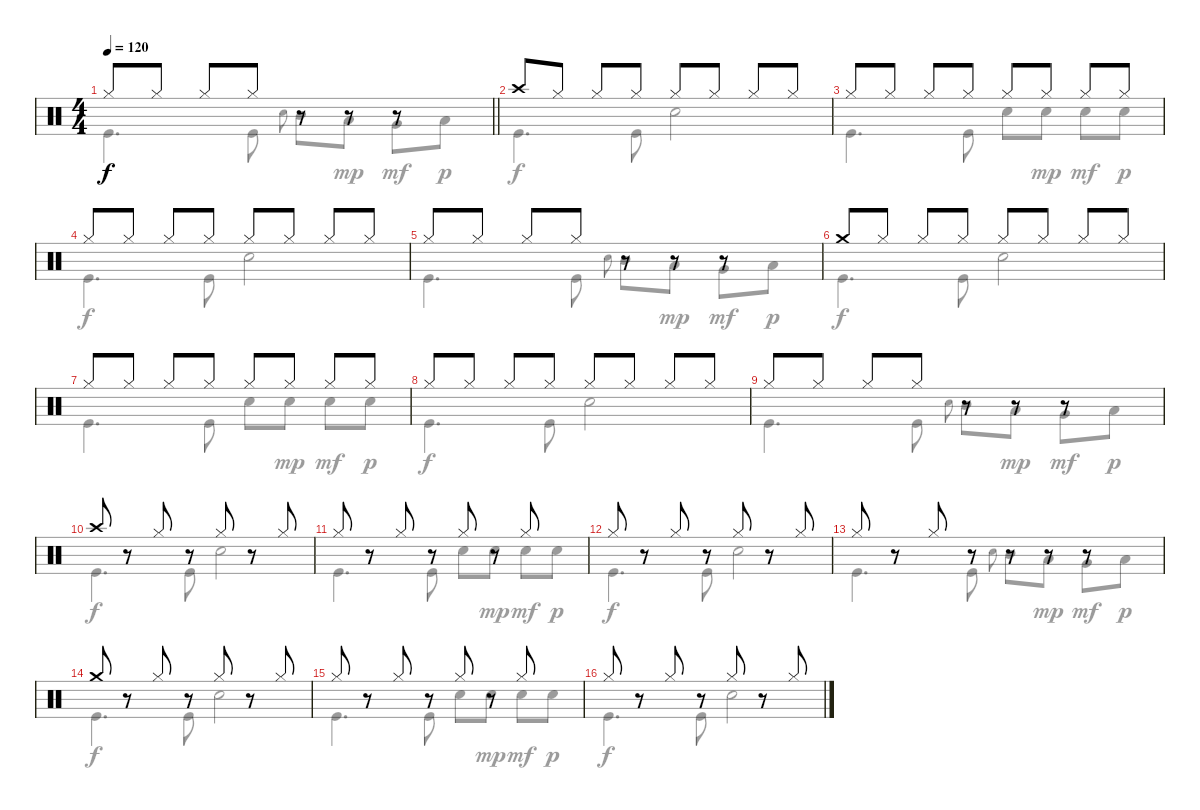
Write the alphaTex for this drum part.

\track "" {instrument percussion}
\staff {score}
\articulation defaults
\voice
\ts (4 4)
\tempo 120
\clef neutral
\barLineRight lightlight
\ks c "Hi-Hat (closed)".8{dy f} "Hi-Hat (closed)".8 "Hi-Hat (closed)".8 "Hi-Hat (closed)".8
r.8 r.8 r.8 |
"Crash high (hit)".8 "Hi-Hat (closed)".8 "Hi-Hat (closed)".8 "Hi-Hat (closed)".8 "Hi-Hat (closed)".8 "Hi-Hat (closed)".8 "Hi-Hat (closed)".8 "Hi-Hat (closed)".8 |
"Hi-Hat (closed)".8 "Hi-Hat (closed)".8 "Hi-Hat (closed)".8 "Hi-Hat (closed)".8 "Hi-Hat (closed)".8 "Hi-Hat (closed)".8 "Hi-Hat (closed)".8 "Hi-Hat (closed)".8 |
"Hi-Hat (closed)".8 "Hi-Hat (closed)".8 "Hi-Hat (closed)".8 "Hi-Hat (closed)".8 "Hi-Hat (closed)".8 "Hi-Hat (closed)".8 "Hi-Hat (closed)".8 "Hi-Hat (closed)".8 |
"Hi-Hat (closed)".8 "Hi-Hat (closed)".8 "Hi-Hat (closed)".8 "Hi-Hat (closed)".8 r.8 r.8 r.8 |
"Crash medium (hit)".8 "Hi-Hat (closed)".8 "Hi-Hat (closed)".8 "Hi-Hat (closed)".8 "Hi-Hat (closed)".8 "Hi-Hat (closed)".8 "Hi-Hat (closed)".8 "Hi-Hat (closed)".8 |
"Hi-Hat (closed)".8 "Hi-Hat (closed)".8 "Hi-Hat (closed)".8 "Hi-Hat (closed)".8 "Hi-Hat (closed)".8 "Hi-Hat (closed)".8 "Hi-Hat (closed)".8 "Hi-Hat (closed)".8 |
"Hi-Hat (closed)".8 "Hi-Hat (closed)".8 "Hi-Hat (closed)".8 "Hi-Hat (closed)".8 "Hi-Hat (closed)".8 "Hi-Hat (closed)".8 "Hi-Hat (closed)".8 "Hi-Hat (closed)".8 |
"Hi-Hat (closed)".8 "Hi-Hat (closed)".8 "Hi-Hat (closed)".8 "Hi-Hat (closed)".8 r.8 r.8 r.8 |
"Crash high (hit)".8 r.8 "Hi-Hat (closed)".8 r.8 "Hi-Hat (closed)".8 r.8 "Hi-Hat (closed)".8 |
"Hi-Hat (closed)".8 r.8 "Hi-Hat (closed)".8 r.8 "Hi-Hat (closed)".8 r.8 "Hi-Hat (closed)".8 |
"Hi-Hat (closed)".8 r.8 "Hi-Hat (closed)".8 r.8 "Hi-Hat (closed)".8 r.8 "Hi-Hat (closed)".8 |
"Hi-Hat (closed)".8 r.8 "Hi-Hat (closed)".8 r.8 r.8 r.8 r.8 |
"Crash medium (hit)".8 r.8 "Hi-Hat (closed)".8 r.8 "Hi-Hat (closed)".8 r.8 "Hi-Hat (closed)".8 |
"Hi-Hat (closed)".8 r.8 "Hi-Hat (closed)".8 r.8 "Hi-Hat (closed)".8 r.8 "Hi-Hat (closed)".8 |
"Hi-Hat (closed)".8 r.8 "Hi-Hat (closed)".8 r.8 "Hi-Hat (closed)".8 r.8 "Hi-Hat (closed)".8
\voice
\clef neutral
\ottava regular
\simile none
\barLineRight lightlight
\ks c "Kick (hit)".4{d dy f} "Kick (hit)".8 "Snare (hit) 2".8{gr onbeat} "Mid Tom (hit)".8 "Low Tom (hit)".8{dy mp} "Very Low Tom (hit)".8{dy mf} "Low Floor Tom (hit)".8{dy p}
|
"Kick (hit)".4{d dy f} "Kick (hit)".8 "Snare (hit) 2".2 |
"Kick (hit)".4{d} "Kick (hit)".8 "Snare (hit) 2".8 "Snare (hit) 2".8{dy mp} "Snare (hit) 2".8{dy mf} "Snare (hit) 2".8{dy p} |
"Kick (hit)".4{d dy f} "Kick (hit)".8 "Snare (hit) 2".2 |
"Kick (hit)".4{d} "Kick (hit)".8 "Snare (hit) 2".8{gr onbeat} "Mid Tom (hit)".8 "Low Tom (hit)".8{dy mp} "Very Low Tom (hit)".8{dy mf} "Low Floor Tom (hit)".8{dy p} |
"Kick (hit)".4{d dy f} "Kick (hit)".8 "Snare (hit) 2".2 |
"Kick (hit)".4{d} "Kick (hit)".8 "Snare (hit) 2".8 "Snare (hit) 2".8{dy mp} "Snare (hit) 2".8{dy mf} "Snare (hit) 2".8{dy p} |
"Kick (hit)".4{d dy f} "Kick (hit)".8 "Snare (hit) 2".2 |
"Kick (hit)".4{d} "Kick (hit)".8 "Snare (hit) 2".8{gr onbeat} "Mid Tom (hit)".8 "Low Tom (hit)".8{dy mp} "Very Low Tom (hit)".8{dy mf} "Low Floor Tom (hit)".8{dy p} |
"Kick (hit)".4{d dy f} "Kick (hit)".8 "Snare (hit) 2".2 |
"Kick (hit)".4{d} "Kick (hit)".8 "Snare (hit) 2".8 "Snare (hit) 2".8{dy mp} "Snare (hit) 2".8{dy mf} "Snare (hit) 2".8{dy p} |
"Kick (hit)".4{d dy f} "Kick (hit)".8 "Snare (hit) 2".2 |
"Kick (hit)".4{d} "Kick (hit)".8 "Snare (hit) 2".8{gr onbeat} "Mid Tom (hit)".8 "Low Tom (hit)".8{dy mp} "Very Low Tom (hit)".8{dy mf} "Low Floor Tom (hit)".8{dy p} |
"Kick (hit)".4{d dy f} "Kick (hit)".8 "Snare (hit) 2".2 |
"Kick (hit)".4{d} "Kick (hit)".8 "Snare (hit) 2".8 "Snare (hit) 2".8{dy mp} "Snare (hit) 2".8{dy mf} "Snare (hit) 2".8{dy p} |
"Kick (hit)".4{d dy f} "Kick (hit)".8 "Snare (hit) 2".2
